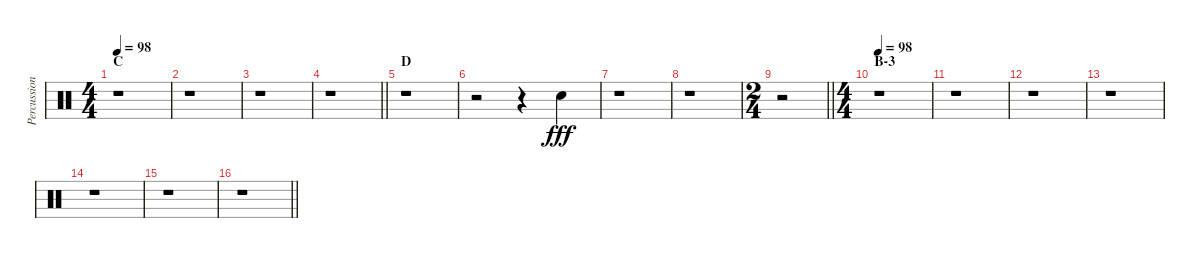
\track ("Percussion" "Percussion") {instrument percussion}
\staff {score}
\articulation defaults
\ts (4 4)
\section ("" "C")
\tempo 98
\clef neutral
\ks c
r.1{dy fff} |
r.1 |
r.1 |
\barLineRight lightlight
r.1 |
\section ("" "D")
r.1 |
r.2 r.4 "Hand Clap (hit)".4 |
r.1 |
r.1 |
\ts (2 4)
\barLineRight lightlight
r.2 |
\ts (4 4)
\section ("" "B-3")
\tempo 98
r.1 |
r.1 |
r.1 |
r.1 |
r.1 |
r.1 |
\barLineRight lightlight
r.1
